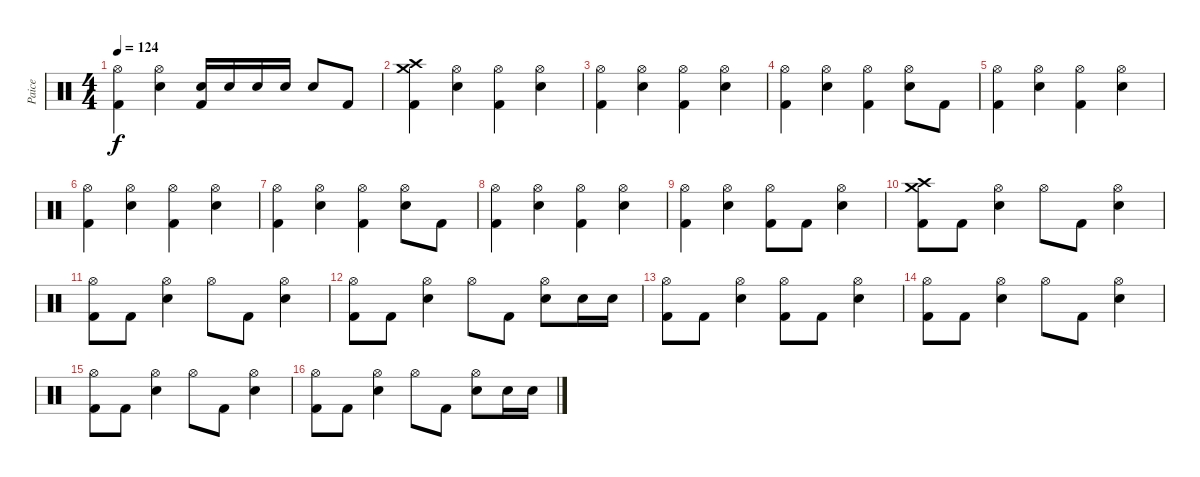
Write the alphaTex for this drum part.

\track ("Paice" "Paice") {instrument percussion}
\staff {score}
\articulation defaults
\ts (4 4)
\tempo 124
\clef neutral
\ks c
("Hi-Hat (open)" "Kick (hit) 2").4{dy f} ("Hi-Hat (open)" "Electric Snare (hit)").4 ("Electric Snare (hit)" "Kick (hit) 2").16 "Electric Snare (hit)".16 "Electric Snare (hit)".16 "Electric Snare (hit)".16 "Electric Snare (hit)".8 "Kick (hit) 2".8 |
("Crash high (hit)" "Crash medium (hit)" "Kick (hit) 2").4 ("Hi-Hat (open)" "Electric Snare (hit)").4 ("Hi-Hat (open)" "Kick (hit) 2").4 ("Hi-Hat (open)" "Electric Snare (hit)").4 |
("Hi-Hat (open)" "Kick (hit) 2").4 ("Hi-Hat (open)" "Electric Snare (hit)").4 ("Hi-Hat (open)" "Kick (hit) 2").4 ("Hi-Hat (open)" "Electric Snare (hit)").4 |
("Hi-Hat (open)" "Kick (hit) 2").4 ("Hi-Hat (open)" "Electric Snare (hit)").4 ("Hi-Hat (open)" "Kick (hit) 2").4 ("Hi-Hat (open)" "Electric Snare (hit)").8 "Kick (hit) 2".8 |
("Hi-Hat (open)" "Kick (hit) 2").4 ("Hi-Hat (open)" "Electric Snare (hit)").4 ("Hi-Hat (open)" "Kick (hit) 2").4 ("Hi-Hat (open)" "Electric Snare (hit)").4 |
("Hi-Hat (open)" "Kick (hit) 2").4 ("Hi-Hat (open)" "Electric Snare (hit)").4 ("Hi-Hat (open)" "Kick (hit) 2").4 ("Hi-Hat (open)" "Electric Snare (hit)").4 |
("Hi-Hat (open)" "Kick (hit) 2").4 ("Hi-Hat (open)" "Electric Snare (hit)").4 ("Hi-Hat (open)" "Kick (hit) 2").4 ("Hi-Hat (open)" "Electric Snare (hit)").8 "Kick (hit) 2".8 |
("Hi-Hat (open)" "Kick (hit) 2").4 ("Hi-Hat (open)" "Electric Snare (hit)").4 ("Hi-Hat (open)" "Kick (hit) 2").4 ("Hi-Hat (open)" "Electric Snare (hit)").4 |
("Hi-Hat (open)" "Kick (hit) 2").4 ("Hi-Hat (open)" "Electric Snare (hit)").4 ("Hi-Hat (open)" "Kick (hit) 2").8 "Kick (hit) 2".8 ("Hi-Hat (open)" "Electric Snare (hit)").4 |
("Crash high (hit)" "Crash medium (hit)" "Kick (hit) 2").8 "Kick (hit) 2".8 ("Hi-Hat (open)" "Electric Snare (hit)").4 "Hi-Hat (open)".8 "Kick (hit) 2".8 ("Hi-Hat (open)" "Electric Snare (hit)").4 |
("Hi-Hat (open)" "Kick (hit) 2").8 "Kick (hit) 2".8 ("Hi-Hat (open)" "Electric Snare (hit)").4 "Hi-Hat (open)".8 "Kick (hit) 2".8 ("Hi-Hat (open)" "Electric Snare (hit)").4 |
("Hi-Hat (open)" "Kick (hit) 2").8 "Kick (hit) 2".8 ("Hi-Hat (open)" "Electric Snare (hit)").4 "Hi-Hat (open)".8 "Kick (hit) 2".8 ("Hi-Hat (open)" "Electric Snare (hit)").8 "Electric Snare (hit)".16 "Electric Snare (hit)".16 |
("Hi-Hat (open)" "Kick (hit) 2").8 "Kick (hit) 2".8 ("Hi-Hat (open)" "Electric Snare (hit)").4 ("Hi-Hat (open)" "Kick (hit) 2").8 "Kick (hit) 2".8 ("Hi-Hat (open)" "Electric Snare (hit)").4 |
("Hi-Hat (open)" "Kick (hit) 2").8 "Kick (hit) 2".8 ("Hi-Hat (open)" "Electric Snare (hit)").4 "Hi-Hat (open)".8 "Kick (hit) 2".8 ("Hi-Hat (open)" "Electric Snare (hit)").4 |
("Hi-Hat (open)" "Kick (hit) 2").8 "Kick (hit) 2".8 ("Hi-Hat (open)" "Electric Snare (hit)").4 "Hi-Hat (open)".8 "Kick (hit) 2".8 ("Hi-Hat (open)" "Electric Snare (hit)").4 |
("Hi-Hat (open)" "Kick (hit) 2").8 "Kick (hit) 2".8 ("Hi-Hat (open)" "Electric Snare (hit)").4 "Hi-Hat (open)".8 "Kick (hit) 2".8 ("Hi-Hat (open)" "Electric Snare (hit)").8 "Electric Snare (hit)".16 "Electric Snare (hit)".16
